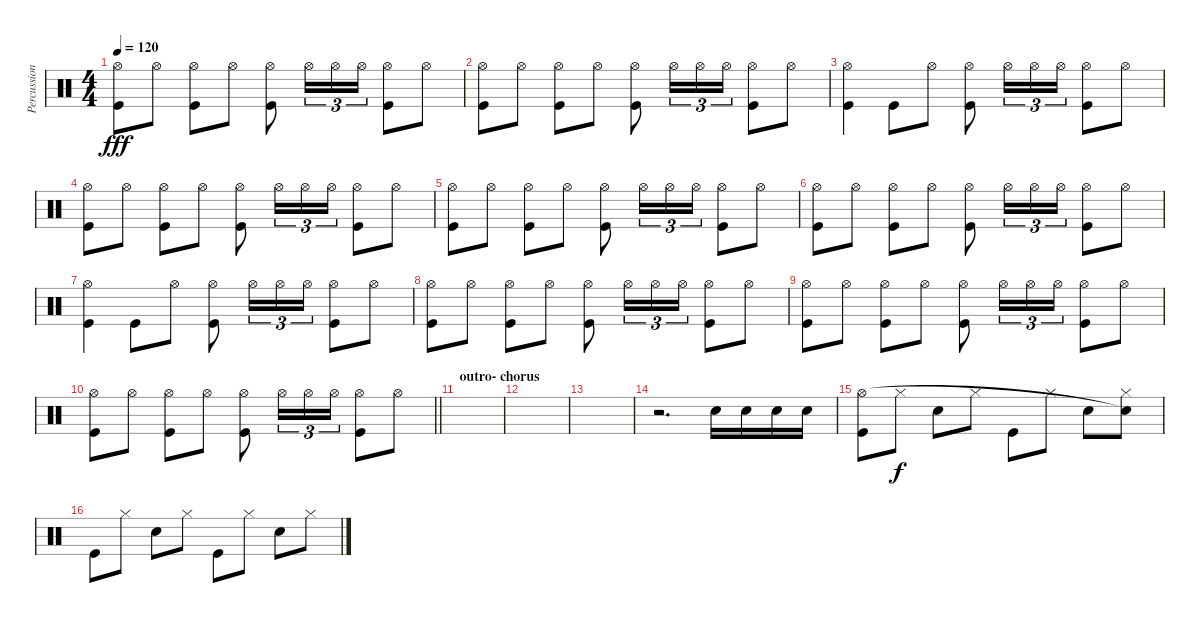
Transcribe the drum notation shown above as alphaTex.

\track ("Percussion" "Percussion") {instrument percussion}
\staff {score}
\articulation defaults
\ts (4 4)
\tempo 120
\clef neutral
\ks c
("Hi-Hat (open)" "Kick (hit)").8{dy fff} "Hi-Hat (open)".8 ("Hi-Hat (open)" "Kick (hit)").8 "Hi-Hat (open)".8 ("Hi-Hat (open)" "Kick (hit)").8 "Hi-Hat (open)".16{tu (3 2)} "Hi-Hat (open)".16{tu (3 2)} "Hi-Hat (open)".16{tu (3 2)} ("Hi-Hat (open)" "Kick (hit)").8 "Hi-Hat (open)".8 |
("Hi-Hat (open)" "Kick (hit)").8 "Hi-Hat (open)".8 ("Hi-Hat (open)" "Kick (hit)").8 "Hi-Hat (open)".8 ("Hi-Hat (open)" "Kick (hit)").8 "Hi-Hat (open)".16{tu (3 2)} "Hi-Hat (open)".16{tu (3 2)} "Hi-Hat (open)".16{tu (3 2)} ("Hi-Hat (open)" "Kick (hit)").8 "Hi-Hat (open)".8 |
("Hi-Hat (open)" "Kick (hit)").4 "Kick (hit)".8 "Hi-Hat (open)".8 ("Hi-Hat (open)" "Kick (hit)").8 "Hi-Hat (open)".16{tu (3 2)} "Hi-Hat (open)".16{tu (3 2)} "Hi-Hat (open)".16{tu (3 2)} ("Hi-Hat (open)" "Kick (hit)").8 "Hi-Hat (open)".8 |
("Hi-Hat (open)" "Kick (hit)").8 "Hi-Hat (open)".8 ("Hi-Hat (open)" "Kick (hit)").8 "Hi-Hat (open)".8 ("Hi-Hat (open)" "Kick (hit)").8 "Hi-Hat (open)".16{tu (3 2)} "Hi-Hat (open)".16{tu (3 2)} "Hi-Hat (open)".16{tu (3 2)} ("Hi-Hat (open)" "Kick (hit)").8 "Hi-Hat (open)".8 |
("Hi-Hat (open)" "Kick (hit)").8 "Hi-Hat (open)".8 ("Hi-Hat (open)" "Kick (hit)").8 "Hi-Hat (open)".8 ("Hi-Hat (open)" "Kick (hit)").8 "Hi-Hat (open)".16{tu (3 2)} "Hi-Hat (open)".16{tu (3 2)} "Hi-Hat (open)".16{tu (3 2)} ("Hi-Hat (open)" "Kick (hit)").8 "Hi-Hat (open)".8 |
("Hi-Hat (open)" "Kick (hit)").8 "Hi-Hat (open)".8 ("Hi-Hat (open)" "Kick (hit)").8 "Hi-Hat (open)".8 ("Hi-Hat (open)" "Kick (hit)").8 "Hi-Hat (open)".16{tu (3 2)} "Hi-Hat (open)".16{tu (3 2)} "Hi-Hat (open)".16{tu (3 2)} ("Hi-Hat (open)" "Kick (hit)").8 "Hi-Hat (open)".8 |
("Hi-Hat (open)" "Kick (hit)").4 "Kick (hit)".8 "Hi-Hat (open)".8 ("Hi-Hat (open)" "Kick (hit)").8 "Hi-Hat (open)".16{tu (3 2)} "Hi-Hat (open)".16{tu (3 2)} "Hi-Hat (open)".16{tu (3 2)} ("Hi-Hat (open)" "Kick (hit)").8 "Hi-Hat (open)".8 |
("Hi-Hat (open)" "Kick (hit)").8 "Hi-Hat (open)".8 ("Hi-Hat (open)" "Kick (hit)").8 "Hi-Hat (open)".8 ("Hi-Hat (open)" "Kick (hit)").8 "Hi-Hat (open)".16{tu (3 2)} "Hi-Hat (open)".16{tu (3 2)} "Hi-Hat (open)".16{tu (3 2)} ("Hi-Hat (open)" "Kick (hit)").8 "Hi-Hat (open)".8 |
("Hi-Hat (open)" "Kick (hit)").8 "Hi-Hat (open)".8 ("Hi-Hat (open)" "Kick (hit)").8 "Hi-Hat (open)".8 ("Hi-Hat (open)" "Kick (hit)").8 "Hi-Hat (open)".16{tu (3 2)} "Hi-Hat (open)".16{tu (3 2)} "Hi-Hat (open)".16{tu (3 2)} ("Hi-Hat (open)" "Kick (hit)").8 "Hi-Hat (open)".8 |
\barLineRight lightlight
("Hi-Hat (open)" "Kick (hit)").8 "Hi-Hat (open)".8 ("Hi-Hat (open)" "Kick (hit)").8 "Hi-Hat (open)".8 ("Hi-Hat (open)" "Kick (hit)").8 "Hi-Hat (open)".16{tu (3 2)} "Hi-Hat (open)".16{tu (3 2)} "Hi-Hat (open)".16{tu (3 2)} ("Hi-Hat (open)" "Kick (hit)").8 "Hi-Hat (open)".8 |
\section ("" "outro- chorus")
|
|
|
r.2{d} "Snare (hit) 2".16 "Snare (hit) 2".16 "Snare (hit) 2".16 "Snare (hit) 2".16 |
("Kick (hit)" "Hi-Hat (open)").8 "Hi-Hat (closed)".8{dy f} "Snare (hit) 2".8 "Hi-Hat (closed)".8 "Kick (hit)".8 "Hi-Hat (closed)".8 "Snare (hit) 2".8 ("Hi-Hat (closed)" "Snare (hit)"{t}).8 |
"Kick (hit)".8 "Hi-Hat (closed)".8 "Snare (hit) 2".8 "Hi-Hat (closed)".8 "Kick (hit)".8 "Hi-Hat (closed)".8 "Snare (hit) 2".8 "Hi-Hat (closed)".8
